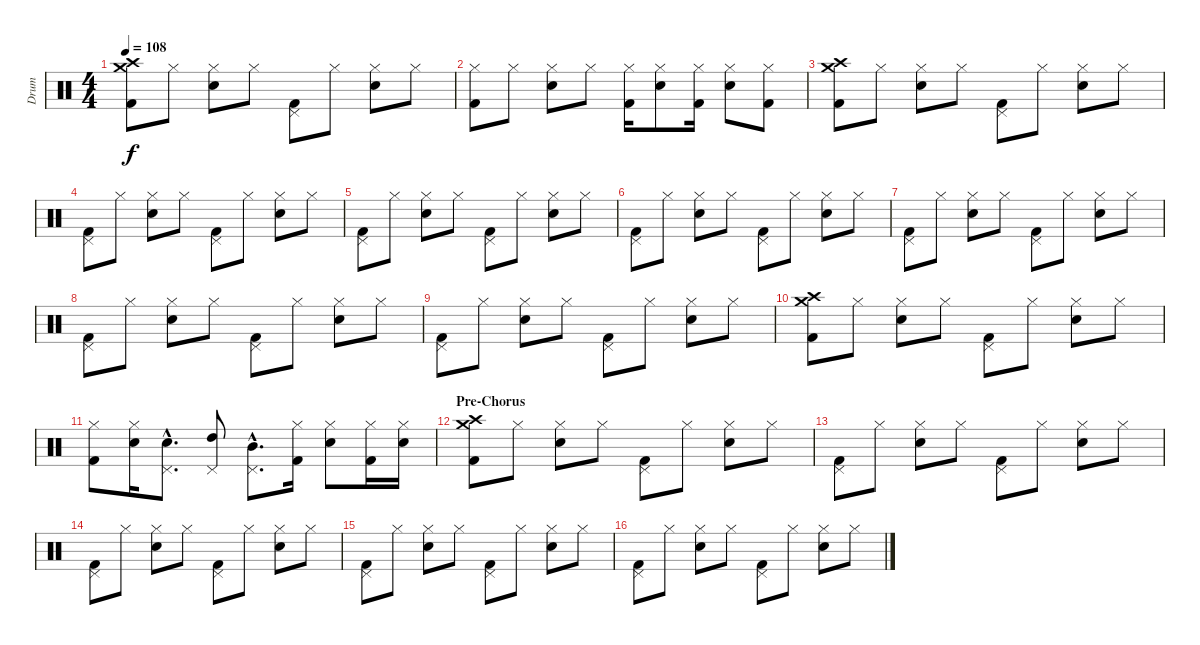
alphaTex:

\track ("Drum" "Drum") {instrument percussion}
\staff {score}
\articulation defaults
\ts (4 4)
\tempo 108
\clef neutral
\ks c
("Kick (hit) 2" "Crash high (hit)" "Crash medium (hit)").8{dy f} "Hi-Hat (closed)".8 ("Hi-Hat (closed)" "Electric Snare (hit)").8 "Hi-Hat (closed)".8 ("Pedal Hi-Hat (hit)" "Kick (hit) 2").8 "Hi-Hat (closed)".8 ("Hi-Hat (closed)" "Electric Snare (hit)").8 "Hi-Hat (closed)".8 |
("Hi-Hat (closed)" "Kick (hit) 2").8 "Hi-Hat (closed)".8 ("Hi-Hat (closed)" "Electric Snare (hit)").8 "Hi-Hat (closed)".8 ("Hi-Hat (closed)" "Kick (hit) 2").16 ("Hi-Hat (closed)" "Electric Snare (hit)").8 ("Hi-Hat (closed)" "Kick (hit) 2").16 ("Hi-Hat (closed)" "Electric Snare (hit)").8 ("Hi-Hat (closed)" "Kick (hit) 2").8 |
("Kick (hit) 2" "Crash high (hit)" "Crash medium (hit)").8 "Hi-Hat (closed)".8 ("Hi-Hat (closed)" "Electric Snare (hit)").8 "Hi-Hat (closed)".8 ("Pedal Hi-Hat (hit)" "Kick (hit) 2").8 "Hi-Hat (closed)".8 ("Hi-Hat (closed)" "Electric Snare (hit)").8 "Hi-Hat (closed)".8 |
("Pedal Hi-Hat (hit)" "Kick (hit) 2").8 "Hi-Hat (closed)".8 ("Hi-Hat (closed)" "Electric Snare (hit)").8 "Hi-Hat (closed)".8 ("Pedal Hi-Hat (hit)" "Kick (hit) 2").8 "Hi-Hat (closed)".8 ("Hi-Hat (closed)" "Electric Snare (hit)").8 "Hi-Hat (closed)".8 |
("Pedal Hi-Hat (hit)" "Kick (hit) 2").8 "Hi-Hat (closed)".8 ("Hi-Hat (closed)" "Electric Snare (hit)").8 "Hi-Hat (closed)".8 ("Pedal Hi-Hat (hit)" "Kick (hit) 2").8 "Hi-Hat (closed)".8 ("Hi-Hat (closed)" "Electric Snare (hit)").8 "Hi-Hat (closed)".8 |
("Pedal Hi-Hat (hit)" "Kick (hit) 2").8 "Hi-Hat (closed)".8 ("Hi-Hat (closed)" "Electric Snare (hit)").8 "Hi-Hat (closed)".8 ("Pedal Hi-Hat (hit)" "Kick (hit) 2").8 "Hi-Hat (closed)".8 ("Hi-Hat (closed)" "Electric Snare (hit)").8 "Hi-Hat (closed)".8 |
("Pedal Hi-Hat (hit)" "Kick (hit) 2").8 "Hi-Hat (closed)".8 ("Hi-Hat (closed)" "Electric Snare (hit)").8 "Hi-Hat (closed)".8 ("Pedal Hi-Hat (hit)" "Kick (hit) 2").8 "Hi-Hat (closed)".8 ("Hi-Hat (closed)" "Electric Snare (hit)").8 "Hi-Hat (closed)".8 |
("Pedal Hi-Hat (hit)" "Kick (hit) 2").8 "Hi-Hat (closed)".8 ("Hi-Hat (closed)" "Electric Snare (hit)").8 "Hi-Hat (closed)".8 ("Pedal Hi-Hat (hit)" "Kick (hit) 2").8 "Hi-Hat (closed)".8 ("Hi-Hat (closed)" "Electric Snare (hit)").8 "Hi-Hat (closed)".8 |
("Pedal Hi-Hat (hit)" "Kick (hit) 2").8 "Hi-Hat (closed)".8 ("Hi-Hat (closed)" "Electric Snare (hit)").8 "Hi-Hat (closed)".8 ("Pedal Hi-Hat (hit)" "Kick (hit) 2").8 "Hi-Hat (closed)".8 ("Hi-Hat (closed)" "Electric Snare (hit)").8 "Hi-Hat (closed)".8 |
("Kick (hit) 2" "Crash high (hit)" "Crash medium (hit)").8 "Hi-Hat (closed)".8 ("Hi-Hat (closed)" "Electric Snare (hit)").8 "Hi-Hat (closed)".8 ("Pedal Hi-Hat (hit)" "Kick (hit) 2").8 "Hi-Hat (closed)".8 ("Hi-Hat (closed)" "Electric Snare (hit)").8 "Hi-Hat (closed)".8 |
("Hi-Hat (closed)" "Kick (hit) 2").8 ("Hi-Hat (closed)" "Electric Snare (hit)").16 ("Pedal Hi-Hat (hit)"{hac} "Electric Snare (hit)"{hac}).8{d} ("Pedal Hi-Hat (hit)" "High Tom (hit)").8 ("Pedal Hi-Hat (hit)"{hac} "Mid Tom (hit)"{hac}).8{d} ("Hi-Hat (closed)" "Kick (hit) 2").16 ("Hi-Hat (closed)" "Electric Snare (hit)").8 ("Hi-Hat (closed)" "Kick (hit) 2").16 ("Hi-Hat (closed)" "Electric Snare (hit)").16 |
\section ("" "Pre-Chorus")
("Kick (hit) 2" "Crash high (hit)" "Crash medium (hit)").8 "Hi-Hat (closed)".8 ("Hi-Hat (closed)" "Electric Snare (hit)").8 "Hi-Hat (closed)".8 ("Pedal Hi-Hat (hit)" "Kick (hit) 2").8 "Hi-Hat (closed)".8 ("Hi-Hat (closed)" "Electric Snare (hit)").8 "Hi-Hat (closed)".8 |
("Pedal Hi-Hat (hit)" "Kick (hit) 2").8 "Hi-Hat (closed)".8 ("Hi-Hat (closed)" "Electric Snare (hit)").8 "Hi-Hat (closed)".8 ("Pedal Hi-Hat (hit)" "Kick (hit) 2").8 "Hi-Hat (closed)".8 ("Hi-Hat (closed)" "Electric Snare (hit)").8 "Hi-Hat (closed)".8 |
("Pedal Hi-Hat (hit)" "Kick (hit) 2").8 "Hi-Hat (closed)".8 ("Hi-Hat (closed)" "Electric Snare (hit)").8 "Hi-Hat (closed)".8 ("Pedal Hi-Hat (hit)" "Kick (hit) 2").8 "Hi-Hat (closed)".8 ("Hi-Hat (closed)" "Electric Snare (hit)").8 "Hi-Hat (closed)".8 |
("Pedal Hi-Hat (hit)" "Kick (hit) 2").8 "Hi-Hat (closed)".8 ("Hi-Hat (closed)" "Electric Snare (hit)").8 "Hi-Hat (closed)".8 ("Pedal Hi-Hat (hit)" "Kick (hit) 2").8 "Hi-Hat (closed)".8 ("Hi-Hat (closed)" "Electric Snare (hit)").8 "Hi-Hat (closed)".8 |
("Pedal Hi-Hat (hit)" "Kick (hit) 2").8 "Hi-Hat (closed)".8 ("Hi-Hat (closed)" "Electric Snare (hit)").8 "Hi-Hat (closed)".8 ("Pedal Hi-Hat (hit)" "Kick (hit) 2").8 "Hi-Hat (closed)".8 ("Hi-Hat (closed)" "Electric Snare (hit)").8 "Hi-Hat (closed)".8
